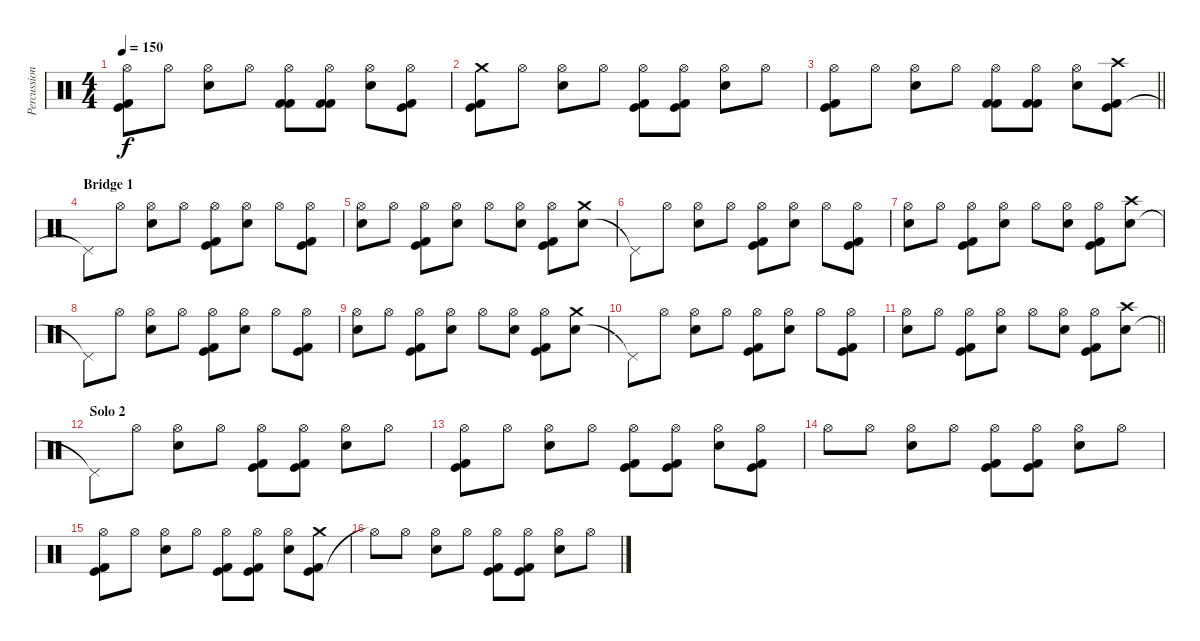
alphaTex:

\track ("Percussion" "Percussion") {instrument percussion}
\staff {score}
\articulation defaults
\ts (4 4)
\tempo 150
\clef neutral
\ks c
("Kick (hit)" "Kick (hit) 2" "Hi-Hat (open)").8{dy f} "Hi-Hat (open)".8 ("Electric Snare (hit)" "Hi-Hat (open)").8 "Hi-Hat (open)".8 ("Kick (hit) 2" "Kick (hit) 2" "Hi-Hat (open)").8 ("Kick (hit) 2" "Kick (hit) 2" "Hi-Hat (open)").8 ("Electric Snare (hit)" "Hi-Hat (open)").8 ("Kick (hit)" "Kick (hit) 2" "Hi-Hat (open)").8 |
("Kick (hit)" "Kick (hit) 2" "Crash medium (hit)").8 "Hi-Hat (open)".8 ("Electric Snare (hit)" "Hi-Hat (open)").8 "Hi-Hat (open)".8 ("Kick (hit)" "Kick (hit) 2" "Hi-Hat (open)").8 ("Kick (hit)" "Kick (hit) 2" "Hi-Hat (open)").8 ("Electric Snare (hit)" "Hi-Hat (open)").8 "Hi-Hat (open)".8 |
\barLineRight lightlight
("Kick (hit)" "Kick (hit) 2" "Hi-Hat (open)").8 "Hi-Hat (open)".8 ("Electric Snare (hit)" "Hi-Hat (open)").8 "Hi-Hat (open)".8 ("Kick (hit) 2" "Kick (hit) 2" "Hi-Hat (open)").8 ("Kick (hit) 2" "Kick (hit) 2" "Hi-Hat (open)").8 ("Electric Snare (hit)" "Hi-Hat (open)").8 ("Kick (hit)" "Kick (hit) 2" "Crash high (hit)").8 |
\section ("" "Bridge 1")
"Pedal Hi-Hat (hit)"{t}.8 "Hi-Hat (open)".8 ("Electric Snare (hit)" "Hi-Hat (open)").8 "Hi-Hat (open)".8 ("Kick (hit)" "Kick (hit) 2" "Hi-Hat (open)").8 ("Electric Snare (hit)" "Hi-Hat (open)").8 "Hi-Hat (open)".8 ("Kick (hit)" "Kick (hit) 2" "Hi-Hat (open)").8 |
("Electric Snare (hit)" "Hi-Hat (open)").8 "Hi-Hat (open)".8 ("Kick (hit)" "Kick (hit) 2" "Hi-Hat (open)").8 ("Electric Snare (hit)" "Hi-Hat (open)").8 "Hi-Hat (open)".8 ("Electric Snare (hit)" "Hi-Hat (open)").8 ("Kick (hit)" "Kick (hit) 2" "Hi-Hat (open)").8 ("Electric Snare (hit)" "Crash medium (hit)").8 |
"Pedal Hi-Hat (hit)"{t}.8 "Hi-Hat (open)".8 ("Electric Snare (hit)" "Hi-Hat (open)").8 "Hi-Hat (open)".8 ("Kick (hit)" "Kick (hit) 2" "Hi-Hat (open)").8 ("Electric Snare (hit)" "Hi-Hat (open)").8 "Hi-Hat (open)".8 ("Kick (hit)" "Kick (hit) 2" "Hi-Hat (open)").8 |
("Electric Snare (hit)" "Hi-Hat (open)").8 "Hi-Hat (open)".8 ("Kick (hit)" "Kick (hit) 2" "Hi-Hat (open)").8 ("Electric Snare (hit)" "Hi-Hat (open)").8 "Hi-Hat (open)".8 ("Electric Snare (hit)" "Hi-Hat (open)").8 ("Kick (hit)" "Kick (hit) 2" "Hi-Hat (open)").8 ("Electric Snare (hit)" "Crash high (hit)").8 |
"Pedal Hi-Hat (hit)"{t}.8 "Hi-Hat (open)".8 ("Electric Snare (hit)" "Hi-Hat (open)").8 "Hi-Hat (open)".8 ("Kick (hit)" "Kick (hit) 2" "Hi-Hat (open)").8 ("Electric Snare (hit)" "Hi-Hat (open)").8 "Hi-Hat (open)".8 ("Kick (hit)" "Kick (hit) 2" "Hi-Hat (open)").8 |
("Electric Snare (hit)" "Hi-Hat (open)").8 "Hi-Hat (open)".8 ("Kick (hit)" "Kick (hit) 2" "Hi-Hat (open)").8 ("Electric Snare (hit)" "Hi-Hat (open)").8 "Hi-Hat (open)".8 ("Electric Snare (hit)" "Hi-Hat (open)").8 ("Kick (hit)" "Kick (hit) 2" "Hi-Hat (open)").8 ("Electric Snare (hit)" "Crash medium (hit)").8 |
"Pedal Hi-Hat (hit)"{t}.8 "Hi-Hat (open)".8 ("Electric Snare (hit)" "Hi-Hat (open)").8 "Hi-Hat (open)".8 ("Kick (hit)" "Kick (hit) 2" "Hi-Hat (open)").8 ("Electric Snare (hit)" "Hi-Hat (open)").8 "Hi-Hat (open)".8 ("Kick (hit)" "Kick (hit) 2" "Hi-Hat (open)").8 |
\barLineRight lightlight
("Electric Snare (hit)" "Hi-Hat (open)").8 "Hi-Hat (open)".8 ("Kick (hit)" "Kick (hit) 2" "Hi-Hat (open)").8 ("Electric Snare (hit)" "Hi-Hat (open)").8 "Hi-Hat (open)".8 ("Electric Snare (hit)" "Hi-Hat (open)").8 ("Kick (hit)" "Kick (hit) 2" "Hi-Hat (open)").8 ("Electric Snare (hit)" "Crash high (hit)").8 |
\section ("" "Solo 2")
"Pedal Hi-Hat (hit)"{t}.8 "Hi-Hat (open)".8 ("Electric Snare (hit)" "Hi-Hat (open)").8 "Hi-Hat (open)".8 ("Kick (hit)" "Kick (hit) 2" "Hi-Hat (open)").8 ("Kick (hit)" "Kick (hit) 2" "Hi-Hat (open)").8 ("Electric Snare (hit)" "Hi-Hat (open)").8 "Hi-Hat (open)".8 |
("Kick (hit)" "Kick (hit) 2" "Hi-Hat (open)").8 "Hi-Hat (open)".8 ("Electric Snare (hit)" "Hi-Hat (open)").8 "Hi-Hat (open)".8 ("Kick (hit)" "Kick (hit) 2" "Hi-Hat (open)").8 ("Kick (hit)" "Kick (hit) 2" "Hi-Hat (open)").8 ("Electric Snare (hit)" "Hi-Hat (open)").8 ("Kick (hit)" "Kick (hit) 2" "Hi-Hat (open)").8 |
"Hi-Hat (open)".8 "Hi-Hat (open)".8 ("Electric Snare (hit)" "Hi-Hat (open)").8 "Hi-Hat (open)".8 ("Kick (hit)" "Kick (hit) 2" "Hi-Hat (open)").8 ("Kick (hit)" "Kick (hit) 2" "Hi-Hat (open)").8 ("Electric Snare (hit)" "Hi-Hat (open)").8 "Hi-Hat (open)".8 |
("Kick (hit)" "Kick (hit) 2" "Hi-Hat (open)").8 "Hi-Hat (open)".8 ("Electric Snare (hit)" "Hi-Hat (open)").8 "Hi-Hat (open)".8 ("Kick (hit)" "Kick (hit) 2" "Hi-Hat (open)").8 ("Kick (hit)" "Kick (hit) 2" "Hi-Hat (open)").8 ("Electric Snare (hit)" "Hi-Hat (open)").8 ("Kick (hit)" "Kick (hit) 2" "Crash medium (hit)").8 |
"Hi-Hat (open)"{t}.8 "Hi-Hat (open)".8 ("Electric Snare (hit)" "Hi-Hat (open)").8 "Hi-Hat (open)".8 ("Kick (hit)" "Kick (hit) 2" "Hi-Hat (open)").8 ("Kick (hit)" "Kick (hit) 2" "Hi-Hat (open)").8 ("Electric Snare (hit)" "Hi-Hat (open)").8 "Hi-Hat (open)".8
